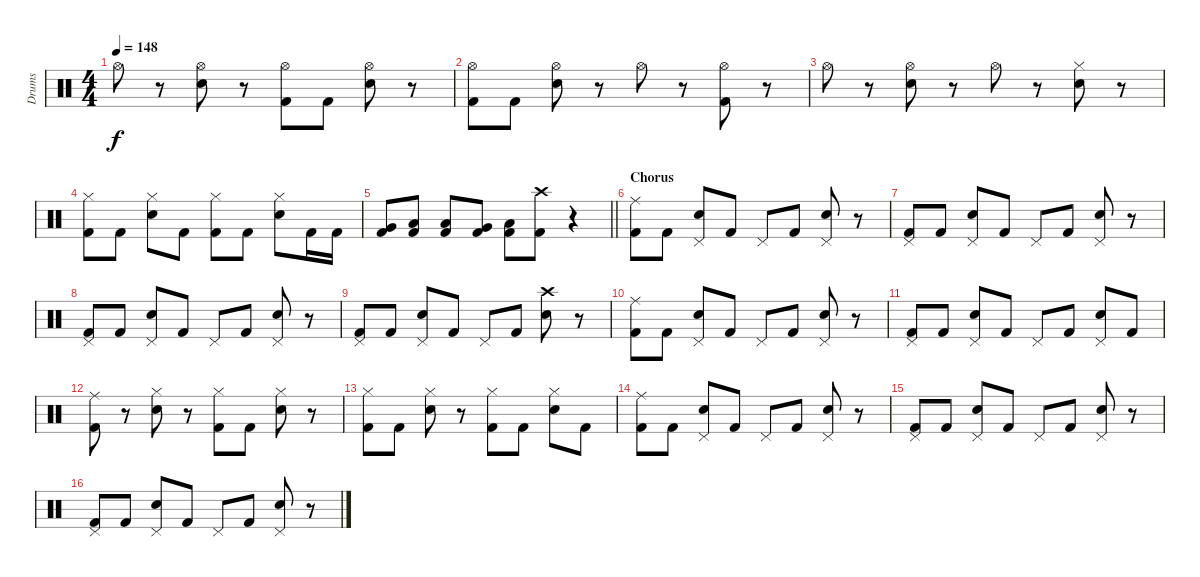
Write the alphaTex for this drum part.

\track ("Drums" "Drums") {instrument percussion}
\staff {score}
\articulation defaults
\ts (4 4)
\tempo 148
\clef neutral
\ks c "Hi-Hat (open)".8{dy f}
r.8 ("Hi-Hat (open)" "Electric Snare (hit)").8 r.8 ("Hi-Hat (open)" "Kick (hit) 2").8 "Kick (hit) 2".8 ("Hi-Hat (open)" "Electric Snare (hit)").8 r.8 |
("Hi-Hat (open)" "Kick (hit) 2").8 "Kick (hit) 2".8 ("Hi-Hat (open)" "Electric Snare (hit)").8 r.8 "Hi-Hat (open)".8 r.8 ("Hi-Hat (open)" "Kick (hit) 2").8 r.8 |
"Hi-Hat (open)".8 r.8 ("Hi-Hat (open)" "Electric Snare (hit)").8 r.8 "Hi-Hat (open)".8 r.8 ("Hi-Hat (closed)" "Electric Snare (hit)").8 r.8 |
("Hi-Hat (closed)" "Kick (hit) 2").8 "Kick (hit) 2".8 ("Hi-Hat (closed)" "Electric Snare (hit)").8 "Kick (hit) 2".8 ("Hi-Hat (closed)" "Kick (hit) 2").8 "Kick (hit) 2".8 ("Hi-Hat (closed)" "Electric Snare (hit)").8 "Kick (hit) 2".16 "Kick (hit) 2".16 |
\barLineRight lightlight
("Very Low Tom (hit)" "Kick (hit) 2").8 ("Low Floor Tom (hit)" "Kick (hit) 2").8 ("Low Floor Tom (hit)" "Kick (hit) 2").8 ("Very Low Tom (hit)" "Kick (hit) 2").8 ("Low Floor Tom (hit)" "Kick (hit) 2").8 ("Crash high (hit)" "Kick (hit) 2").8 r.4 |
\section ("" "Chorus")
("Ride (middle)" "Kick (hit) 2").8 "Kick (hit) 2".8 ("Pedal Hi-Hat (hit)" "Electric Snare (hit)").8 "Kick (hit) 2".8 "Pedal Hi-Hat (hit)".8 "Kick (hit) 2".8 ("Pedal Hi-Hat (hit)" "Electric Snare (hit)").8 r.8 |
("Pedal Hi-Hat (hit)" "Kick (hit) 2").8 "Kick (hit) 2".8 ("Pedal Hi-Hat (hit)" "Electric Snare (hit)").8 "Kick (hit) 2".8 "Pedal Hi-Hat (hit)".8 "Kick (hit) 2".8 ("Pedal Hi-Hat (hit)" "Electric Snare (hit)").8 r.8 |
("Pedal Hi-Hat (hit)" "Kick (hit) 2").8 "Kick (hit) 2".8 ("Pedal Hi-Hat (hit)" "Electric Snare (hit)").8 "Kick (hit) 2".8 "Pedal Hi-Hat (hit)".8 "Kick (hit) 2".8 ("Pedal Hi-Hat (hit)" "Electric Snare (hit)").8 r.8 |
("Pedal Hi-Hat (hit)" "Kick (hit) 2").8 "Kick (hit) 2".8 ("Pedal Hi-Hat (hit)" "Electric Snare (hit)").8 "Kick (hit) 2".8 "Pedal Hi-Hat (hit)".8 "Kick (hit) 2".8 ("Crash high (hit)" "Electric Snare (hit)").8 r.8 |
("Ride (middle)" "Kick (hit) 2").8 "Kick (hit) 2".8 ("Pedal Hi-Hat (hit)" "Electric Snare (hit)").8 "Kick (hit) 2".8 "Pedal Hi-Hat (hit)".8 "Kick (hit) 2".8 ("Pedal Hi-Hat (hit)" "Electric Snare (hit)").8 r.8 |
("Pedal Hi-Hat (hit)" "Kick (hit) 2").8 "Kick (hit) 2".8 ("Pedal Hi-Hat (hit)" "Electric Snare (hit)").8 "Kick (hit) 2".8 "Pedal Hi-Hat (hit)".8 "Kick (hit) 2".8 ("Pedal Hi-Hat (hit)" "Electric Snare (hit)").8 "Kick (hit) 2".8 |
("Ride (middle)" "Kick (hit) 2").8 r.8 ("Hi-Hat (closed)" "Electric Snare (hit)").8 r.8 ("Hi-Hat (closed)" "Kick (hit) 2").8 "Kick (hit) 2".8 ("Hi-Hat (closed)" "Electric Snare (hit)").8 r.8 |
("Hi-Hat (closed)" "Kick (hit) 2").8 "Kick (hit) 2".8 ("Hi-Hat (closed)" "Electric Snare (hit)").8 r.8 ("Hi-Hat (closed)" "Kick (hit) 2").8 "Kick (hit) 2".8 ("Hi-Hat (closed)" "Electric Snare (hit)").8 "Kick (hit) 2".8 |
("Ride (middle)" "Kick (hit) 2").8 "Kick (hit) 2".8 ("Pedal Hi-Hat (hit)" "Electric Snare (hit)").8 "Kick (hit) 2".8 "Pedal Hi-Hat (hit)".8 "Kick (hit) 2".8 ("Pedal Hi-Hat (hit)" "Electric Snare (hit)").8 r.8 |
("Pedal Hi-Hat (hit)" "Kick (hit) 2").8 "Kick (hit) 2".8 ("Pedal Hi-Hat (hit)" "Electric Snare (hit)").8 "Kick (hit) 2".8 "Pedal Hi-Hat (hit)".8 "Kick (hit) 2".8 ("Pedal Hi-Hat (hit)" "Electric Snare (hit)").8 r.8 |
("Pedal Hi-Hat (hit)" "Kick (hit) 2").8 "Kick (hit) 2".8 ("Pedal Hi-Hat (hit)" "Electric Snare (hit)").8 "Kick (hit) 2".8 "Pedal Hi-Hat (hit)".8 "Kick (hit) 2".8 ("Pedal Hi-Hat (hit)" "Electric Snare (hit)").8 r.8
